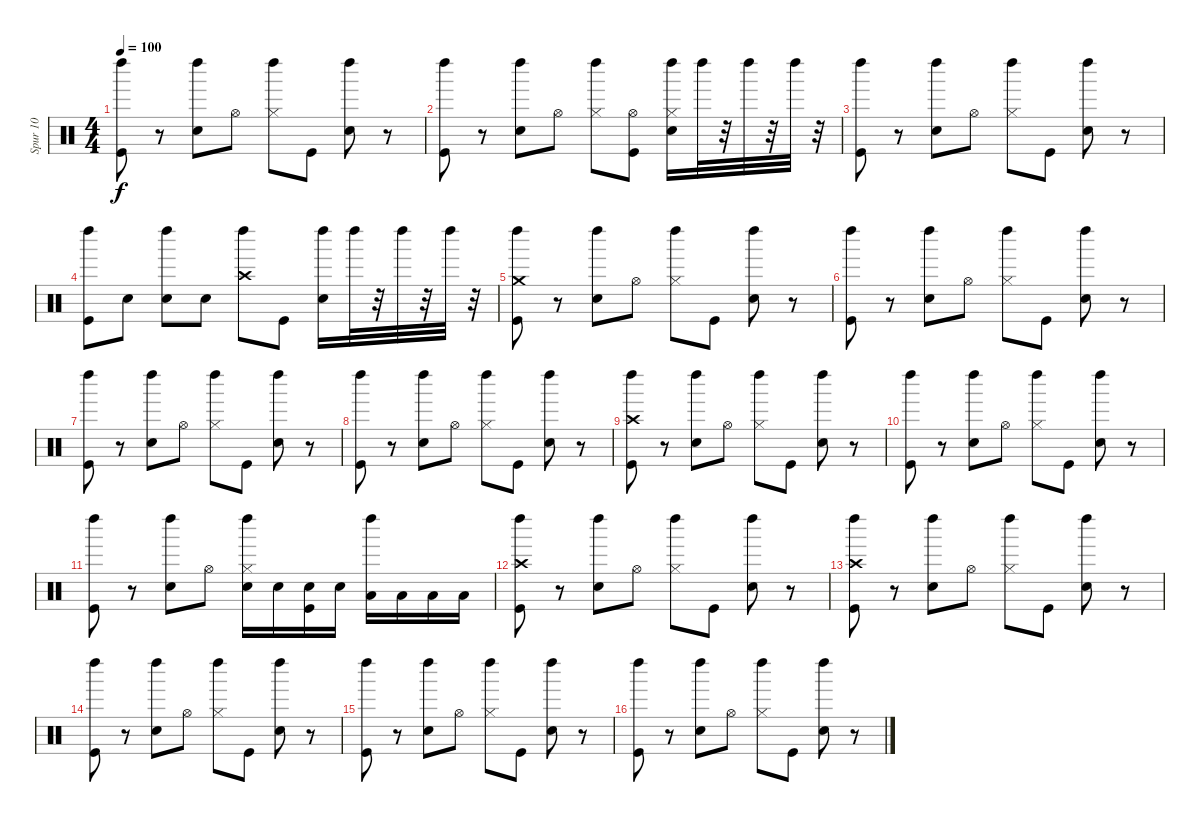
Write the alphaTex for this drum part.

\track ("Spur 10" "Spur 10") {instrument percussion}
\staff {score}
\articulation defaults
\ts (4 4)
\tempo 100
\clef neutral
\ks c
("Kick (hit)" "Left Maraca (hit)").8{dy f} r.8 ("Snare (hit) 2" "Left Maraca (hit)").8 "Hi-Hat (open)".8 ("Hi-Hat (closed)" "Left Maraca (hit)").8 "Kick (hit)".8 ("Snare (hit) 2" "Left Maraca (hit)").8 r.8 |
("Kick (hit)" "Left Maraca (hit)").8 r.8 ("Snare (hit) 2" "Left Maraca (hit)").8 "Hi-Hat (open)".8 ("Hi-Hat (closed)" "Left Maraca (hit)").8 ("Hi-Hat (open)" "Kick (hit)").8 ("Hi-Hat (closed)" "Snare (hit) 2" "Left Maraca (hit)").16 "Left Maraca (hit)".32 r.32 "Left Maraca (hit)".32 r.32 "Left Maraca (hit)".32 r.32 |
("Kick (hit)" "Left Maraca (hit)").8 r.8 ("Snare (hit) 2" "Left Maraca (hit)").8 "Hi-Hat (open)".8 ("Hi-Hat (closed)" "Left Maraca (hit)").8 "Kick (hit)".8 ("Snare (hit) 2" "Left Maraca (hit)").8 r.8 |
("Kick (hit)" "Left Maraca (hit)").8 "Electric Snare (hit)".8 ("Snare (hit) 2" "Left Maraca (hit)").8 "Snare (hit) 2".8 ("Crash high (hit)" "Left Maraca (hit)").8 "Kick (hit)".8 ("Snare (hit) 2" "Left Maraca (hit)").16 "Left Maraca (hit)".32 r.32 "Left Maraca (hit)".32 r.32 "Left Maraca (hit)".32 r.32 |
("Crash medium (hit)" "Kick (hit)" "Left Maraca (hit)").8 r.8 ("Snare (hit) 2" "Left Maraca (hit)").8 "Hi-Hat (open)".8 ("Hi-Hat (closed)" "Left Maraca (hit)").8 "Kick (hit)".8 ("Snare (hit) 2" "Left Maraca (hit)").8 r.8 |
("Kick (hit)" "Left Maraca (hit)").8 r.8 ("Snare (hit) 2" "Left Maraca (hit)").8 "Hi-Hat (open)".8 ("Hi-Hat (closed)" "Left Maraca (hit)").8 "Kick (hit)".8 ("Snare (hit) 2" "Left Maraca (hit)").8 r.8 |
("Kick (hit)" "Left Maraca (hit)").8 r.8 ("Snare (hit) 2" "Left Maraca (hit)").8 "Hi-Hat (open)".8 ("Hi-Hat (closed)" "Left Maraca (hit)").8 "Kick (hit)".8 ("Snare (hit) 2" "Left Maraca (hit)").8 r.8 |
("Kick (hit)" "Left Maraca (hit)").8 r.8 ("Snare (hit) 2" "Left Maraca (hit)").8 "Hi-Hat (open)".8 ("Hi-Hat (closed)" "Left Maraca (hit)").8 "Kick (hit)".8 ("Snare (hit) 2" "Left Maraca (hit)").8 r.8 |
("Crash high (hit)" "Kick (hit)" "Left Maraca (hit)").8 r.8 ("Snare (hit) 2" "Left Maraca (hit)").8 "Hi-Hat (open)".8 ("Hi-Hat (closed)" "Left Maraca (hit)").8 "Kick (hit)".8 ("Snare (hit) 2" "Left Maraca (hit)").8 r.8 |
("Kick (hit)" "Left Maraca (hit)").8 r.8 ("Snare (hit) 2" "Left Maraca (hit)").8 "Hi-Hat (open)".8 ("Hi-Hat (closed)" "Left Maraca (hit)").8 "Kick (hit)".8 ("Snare (hit) 2" "Left Maraca (hit)").8 r.8 |
("Kick (hit)" "Left Maraca (hit)").8 r.8 ("Snare (hit) 2" "Left Maraca (hit)").8 "Hi-Hat (open)".8 ("Electric Snare (hit)" "Hi-Hat (closed)" "Left Maraca (hit)").16 "Electric Snare (hit)".16 ("Electric Snare (hit)" "Kick (hit)").16 "Electric Snare (hit)".16 ("Low Tom (hit)" "Left Maraca (hit)").16 "Low Tom (hit)".16 "Low Tom (hit)".16 "Low Tom (hit)".16 |
("Crash high (hit)" "Kick (hit)" "Left Maraca (hit)").8 r.8 ("Snare (hit) 2" "Left Maraca (hit)").8 "Hi-Hat (open)".8 ("Hi-Hat (closed)" "Left Maraca (hit)").8 "Kick (hit)".8 ("Snare (hit) 2" "Left Maraca (hit)").8 r.8 |
("Crash high (hit)" "Kick (hit)" "Left Maraca (hit)").8 r.8 ("Snare (hit) 2" "Left Maraca (hit)").8 "Hi-Hat (open)".8 ("Hi-Hat (closed)" "Left Maraca (hit)").8 "Kick (hit)".8 ("Snare (hit) 2" "Left Maraca (hit)").8 r.8 |
("Kick (hit)" "Left Maraca (hit)").8 r.8 ("Snare (hit) 2" "Left Maraca (hit)").8 "Hi-Hat (open)".8 ("Hi-Hat (closed)" "Left Maraca (hit)").8 "Kick (hit)".8 ("Snare (hit) 2" "Left Maraca (hit)").8 r.8 |
("Kick (hit)" "Left Maraca (hit)").8 r.8 ("Snare (hit) 2" "Left Maraca (hit)").8 "Hi-Hat (open)".8 ("Hi-Hat (closed)" "Left Maraca (hit)").8 "Kick (hit)".8 ("Snare (hit) 2" "Left Maraca (hit)").8 r.8 |
("Kick (hit)" "Left Maraca (hit)").8 r.8 ("Snare (hit) 2" "Left Maraca (hit)").8 "Hi-Hat (open)".8 ("Hi-Hat (closed)" "Left Maraca (hit)").8 "Kick (hit)".8 ("Snare (hit) 2" "Left Maraca (hit)").8 r.8
